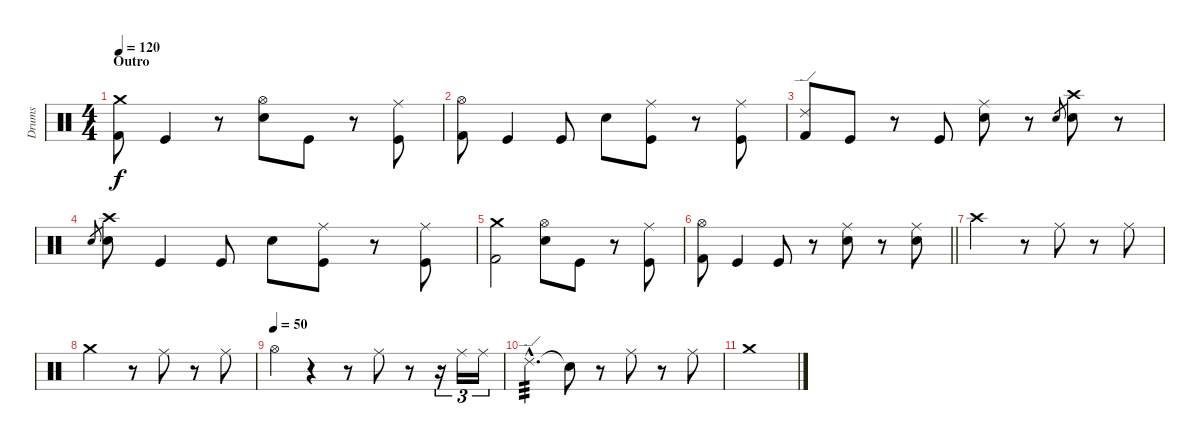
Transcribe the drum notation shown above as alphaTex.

\track ("Drums" "Drums") {instrument percussion}
\staff {score}
\articulation defaults
\ts (4 4)
\section ("" "Outro")
\tempo 120
\clef neutral
\ks c
("Crash medium (hit)" "Kick (hit) 2").8{dy f} "Kick (hit)".4 r.8 ("Hi-Hat (open)" "Snare (hit) 2").8 "Kick (hit)".8 r.8 ("Ride (middle)" "Kick (hit)").8 |
("Hi-Hat (open)" "Kick (hit) 2").8 "Kick (hit)".4 "Kick (hit)".8 "Snare (hit) 2".8 ("Ride (middle)" "Kick (hit)").8 r.8 ("Ride (middle)" "Kick (hit)").8 |
("Ride (edge) 2" "Kick (hit) 2").8 "Kick (hit)".8 r.8 "Kick (hit)".8 ("Ride (middle)" "Snare (hit) 2").8 r.8 "Snare (hit) 2".8{gr} ("Crash high (hit)" "Snare (hit) 2").8 r.8 |
"Snare (hit) 2".8{gr} ("Crash high (hit)" "Snare (hit) 2").8 "Kick (hit)".4 "Kick (hit)".8 "Snare (hit) 2".8 ("Ride (middle)" "Kick (hit)").8 r.8 ("Ride (middle)" "Kick (hit)").8 |
("Crash medium (hit)" "Kick (hit) 2").2 ("Hi-Hat (open)" "Snare (hit) 2").8 "Kick (hit)".8 r.8 ("Ride (middle)" "Kick (hit)").8 |
\barLineRight lightlight
("Hi-Hat (open)" "Kick (hit) 2").8 "Kick (hit)".4 "Kick (hit)".8 r.8 ("Ride (middle)" "Snare (hit) 2").8 r.8 ("Ride (middle)" "Snare (hit) 2").8 |
"Crash high (hit)".2 r.8 "Ride (middle)".8 r.8 "Ride (middle)".8 |
"Crash medium (hit)".2 r.8 "Ride (middle)".8 r.8 "Ride (middle)".8 |
\tempo (50)
"Hi-Hat (open)".4 r.4 r.8 "Ride (middle)".8 r.8 r.16{tu (3 2)} "Ride (middle)".16{tu (3 2)} "Ride (middle)".16{tu (3 2)} |
"Ride (edge) 2"{hac}.4{d tp 3} "Snare (hit)"{t}.8 r.8 "Ride (middle)".8 r.8 "Ride (middle)".8 |
"Crash medium (hit)".1
